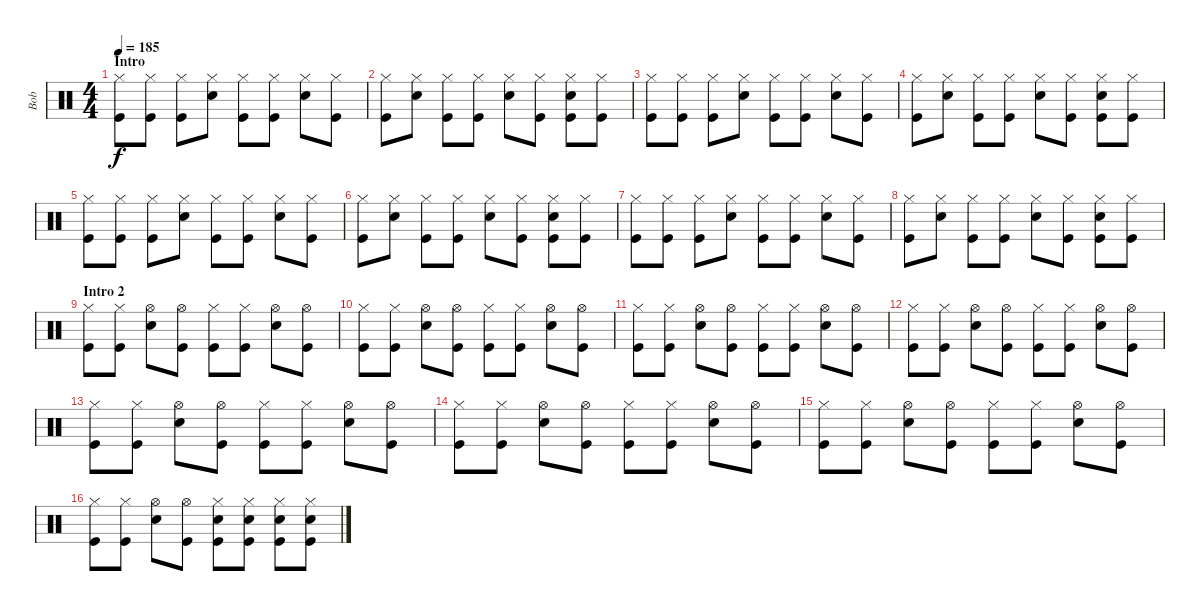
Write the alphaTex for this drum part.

\track ("Bob" "Bob") {instrument percussion}
\staff {score}
\articulation defaults
\ts (4 4)
\section ("" "Intro")
\tempo 185
\clef neutral
\ks c
("Hi-Hat (closed)" "Kick (hit)").8{dy f} ("Hi-Hat (closed)" "Kick (hit)").8 ("Hi-Hat (closed)" "Kick (hit)").8 ("Hi-Hat (closed)" "Snare (hit) 2").8 ("Hi-Hat (closed)" "Kick (hit)").8 ("Hi-Hat (closed)" "Kick (hit)").8 ("Hi-Hat (closed)" "Snare (hit) 2").8 ("Hi-Hat (closed)" "Kick (hit)").8 |
("Hi-Hat (closed)" "Kick (hit)").8 ("Hi-Hat (closed)" "Snare (hit) 2").8 ("Hi-Hat (closed)" "Kick (hit)").8 ("Hi-Hat (closed)" "Kick (hit)").8 ("Hi-Hat (closed)" "Snare (hit) 2").8 ("Hi-Hat (closed)" "Kick (hit)").8 ("Hi-Hat (closed)" "Snare (hit) 2" "Kick (hit)").8 ("Hi-Hat (closed)" "Kick (hit)").8 |
("Hi-Hat (closed)" "Kick (hit)").8 ("Hi-Hat (closed)" "Kick (hit)").8 ("Hi-Hat (closed)" "Kick (hit)").8 ("Hi-Hat (closed)" "Snare (hit) 2").8 ("Hi-Hat (closed)" "Kick (hit)").8 ("Hi-Hat (closed)" "Kick (hit)").8 ("Hi-Hat (closed)" "Snare (hit) 2").8 ("Hi-Hat (closed)" "Kick (hit)").8 |
("Hi-Hat (closed)" "Kick (hit)").8 ("Hi-Hat (closed)" "Snare (hit) 2").8 ("Hi-Hat (closed)" "Kick (hit)").8 ("Hi-Hat (closed)" "Kick (hit)").8 ("Hi-Hat (closed)" "Snare (hit) 2").8 ("Hi-Hat (closed)" "Kick (hit)").8 ("Hi-Hat (closed)" "Snare (hit) 2" "Kick (hit)").8 ("Hi-Hat (closed)" "Kick (hit)").8 |
("Hi-Hat (closed)" "Kick (hit)").8 ("Hi-Hat (closed)" "Kick (hit)").8 ("Hi-Hat (closed)" "Kick (hit)").8 ("Hi-Hat (closed)" "Snare (hit) 2").8 ("Hi-Hat (closed)" "Kick (hit)").8 ("Hi-Hat (closed)" "Kick (hit)").8 ("Hi-Hat (closed)" "Snare (hit) 2").8 ("Hi-Hat (closed)" "Kick (hit)").8 |
("Hi-Hat (closed)" "Kick (hit)").8 ("Hi-Hat (closed)" "Snare (hit) 2").8 ("Hi-Hat (closed)" "Kick (hit)").8 ("Hi-Hat (closed)" "Kick (hit)").8 ("Hi-Hat (closed)" "Snare (hit) 2").8 ("Hi-Hat (closed)" "Kick (hit)").8 ("Hi-Hat (closed)" "Snare (hit) 2" "Kick (hit)").8 ("Hi-Hat (closed)" "Kick (hit)").8 |
("Hi-Hat (closed)" "Kick (hit)").8 ("Hi-Hat (closed)" "Kick (hit)").8 ("Hi-Hat (closed)" "Kick (hit)").8 ("Hi-Hat (closed)" "Snare (hit) 2").8 ("Hi-Hat (closed)" "Kick (hit)").8 ("Hi-Hat (closed)" "Kick (hit)").8 ("Hi-Hat (closed)" "Snare (hit) 2").8 ("Hi-Hat (closed)" "Kick (hit)").8 |
("Hi-Hat (closed)" "Kick (hit)").8 ("Hi-Hat (closed)" "Snare (hit) 2").8 ("Hi-Hat (closed)" "Kick (hit)").8 ("Hi-Hat (closed)" "Kick (hit)").8 ("Hi-Hat (closed)" "Snare (hit) 2").8 ("Hi-Hat (closed)" "Kick (hit)").8 ("Hi-Hat (closed)" "Snare (hit) 2" "Kick (hit)").8 ("Hi-Hat (closed)" "Kick (hit)").8 |
\section ("" "Intro 2")
("Hi-Hat (closed)" "Kick (hit)").8 ("Hi-Hat (closed)" "Kick (hit)").8 ("Hi-Hat (open)" "Snare (hit) 2").8 ("Hi-Hat (open)" "Kick (hit)").8 ("Hi-Hat (closed)" "Kick (hit)").8 ("Hi-Hat (closed)" "Kick (hit)").8 ("Hi-Hat (open)" "Snare (hit) 2").8 ("Hi-Hat (open)" "Kick (hit)").8 |
("Hi-Hat (closed)" "Kick (hit)").8 ("Hi-Hat (closed)" "Kick (hit)").8 ("Hi-Hat (open)" "Snare (hit) 2").8 ("Hi-Hat (open)" "Kick (hit)").8 ("Hi-Hat (closed)" "Kick (hit)").8 ("Hi-Hat (closed)" "Kick (hit)").8 ("Hi-Hat (open)" "Snare (hit) 2").8 ("Hi-Hat (open)" "Kick (hit)").8 |
("Hi-Hat (closed)" "Kick (hit)").8 ("Hi-Hat (closed)" "Kick (hit)").8 ("Hi-Hat (open)" "Snare (hit) 2").8 ("Hi-Hat (open)" "Kick (hit)").8 ("Hi-Hat (closed)" "Kick (hit)").8 ("Hi-Hat (closed)" "Kick (hit)").8 ("Hi-Hat (open)" "Snare (hit) 2").8 ("Hi-Hat (open)" "Kick (hit)").8 |
("Hi-Hat (closed)" "Kick (hit)").8 ("Hi-Hat (closed)" "Kick (hit)").8 ("Hi-Hat (open)" "Snare (hit) 2").8 ("Hi-Hat (open)" "Kick (hit)").8 ("Hi-Hat (closed)" "Kick (hit)").8 ("Hi-Hat (closed)" "Kick (hit)").8 ("Hi-Hat (open)" "Snare (hit) 2").8 ("Hi-Hat (open)" "Kick (hit)").8 |
("Hi-Hat (closed)" "Kick (hit)").8 ("Hi-Hat (closed)" "Kick (hit)").8 ("Hi-Hat (open)" "Snare (hit) 2").8 ("Hi-Hat (open)" "Kick (hit)").8 ("Hi-Hat (closed)" "Kick (hit)").8 ("Hi-Hat (closed)" "Kick (hit)").8 ("Hi-Hat (open)" "Snare (hit) 2").8 ("Hi-Hat (open)" "Kick (hit)").8 |
("Hi-Hat (closed)" "Kick (hit)").8 ("Hi-Hat (closed)" "Kick (hit)").8 ("Hi-Hat (open)" "Snare (hit) 2").8 ("Hi-Hat (open)" "Kick (hit)").8 ("Hi-Hat (closed)" "Kick (hit)").8 ("Hi-Hat (closed)" "Kick (hit)").8 ("Hi-Hat (open)" "Snare (hit) 2").8 ("Hi-Hat (open)" "Kick (hit)").8 |
("Hi-Hat (closed)" "Kick (hit)").8 ("Hi-Hat (closed)" "Kick (hit)").8 ("Hi-Hat (open)" "Snare (hit) 2").8 ("Hi-Hat (open)" "Kick (hit)").8 ("Hi-Hat (closed)" "Kick (hit)").8 ("Hi-Hat (closed)" "Kick (hit)").8 ("Hi-Hat (open)" "Snare (hit) 2").8 ("Hi-Hat (open)" "Kick (hit)").8 |
("Hi-Hat (closed)" "Kick (hit)").8 ("Hi-Hat (closed)" "Kick (hit)").8 ("Hi-Hat (open)" "Snare (hit) 2").8 ("Hi-Hat (open)" "Kick (hit)").8 ("Hi-Hat (closed)" "Snare (hit) 2" "Kick (hit)").8 ("Hi-Hat (closed)" "Snare (hit) 2" "Kick (hit)").8 ("Hi-Hat (closed)" "Snare (hit) 2" "Kick (hit)").8 ("Hi-Hat (closed)" "Snare (hit) 2" "Kick (hit)").8
